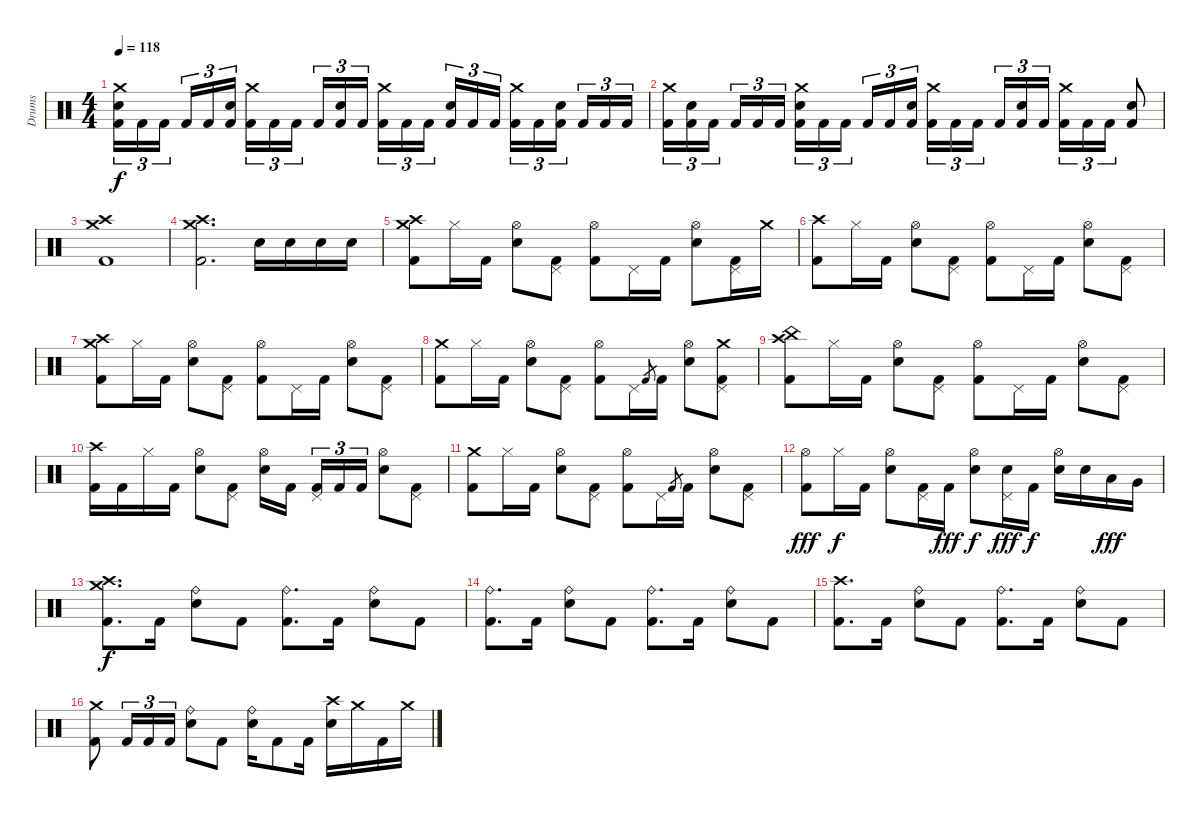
\track ("Drums" "Drums") {instrument percussion}
\staff {score}
\articulation defaults
\ts (4 4)
\tempo 118
\clef neutral
\ks c
("Crash medium (hit)" "Electric Snare (hit)" "Kick (hit) 2").16{tu (3 2) dy f} "Kick (hit) 2".16{tu (3 2)} "Kick (hit) 2".16{tu (3 2) beam splitsecondary} "Kick (hit) 2".16{tu (3 2)} "Kick (hit) 2".16{tu (3 2)} ("Electric Snare (hit)" "Kick (hit) 2").16{tu (3 2)} ("Crash medium (hit)" "Kick (hit) 2").16{tu (3 2)} "Kick (hit) 2".16{tu (3 2)} "Kick (hit) 2".16{tu (3 2) beam splitsecondary} "Kick (hit) 2".16{tu (3 2)} ("Electric Snare (hit)" "Kick (hit) 2").16{tu (3 2)} "Kick (hit) 2".16{tu (3 2)} ("Crash medium (hit)" "Kick (hit) 2").16{tu (3 2)} "Kick (hit) 2".16{tu (3 2)} "Kick (hit) 2".16{tu (3 2) beam splitsecondary} ("Electric Snare (hit)" "Kick (hit) 2").16{tu (3 2)} "Kick (hit) 2".16{tu (3 2)} "Kick (hit) 2".16{tu (3 2)} ("Crash medium (hit)" "Kick (hit) 2").16{tu (3 2)} "Kick (hit) 2".16{tu (3 2)} ("Electric Snare (hit)" "Kick (hit) 2").16{tu (3 2) beam splitsecondary} "Kick (hit) 2".16{tu (3 2)} "Kick (hit) 2".16{tu (3 2)} "Kick (hit) 2".16{tu (3 2)} |
("Crash medium (hit)" "Kick (hit) 2").16{tu (3 2)} ("Electric Snare (hit)" "Kick (hit) 2").16{tu (3 2)} "Kick (hit) 2".16{tu (3 2) beam splitsecondary} "Kick (hit) 2".16{tu (3 2)} "Kick (hit) 2".16{tu (3 2)} "Kick (hit) 2".16{tu (3 2)} ("Crash medium (hit)" "Electric Snare (hit)" "Kick (hit) 2").16{tu (3 2)} "Kick (hit) 2".16{tu (3 2)} "Kick (hit) 2".16{tu (3 2) beam splitsecondary} "Kick (hit) 2".16{tu (3 2)} "Kick (hit) 2".16{tu (3 2)} ("Electric Snare (hit)" "Kick (hit) 2").16{tu (3 2)} ("Crash medium (hit)" "Kick (hit) 2").16{tu (3 2)} "Kick (hit) 2".16{tu (3 2)} "Kick (hit) 2".16{tu (3 2) beam splitsecondary} "Kick (hit) 2".16{tu (3 2)} ("Electric Snare (hit)" "Kick (hit) 2").16{tu (3 2)} "Kick (hit) 2".16{tu (3 2)} ("Crash medium (hit)" "Kick (hit) 2").16{tu (3 2)} "Kick (hit) 2".16{tu (3 2)} "Kick (hit) 2".16{tu (3 2)} ("Electric Snare (hit)" "Kick (hit) 2").8 |
("Crash medium (hit)" "Crash high (hit)" "Kick (hit) 2").1 |
("Crash medium (hit)" "Crash high (hit)" "Kick (hit) 2").2{d} "Electric Snare (hit)".16 "Electric Snare (hit)".16 "Electric Snare (hit)".16 "Electric Snare (hit)".16 |
("Crash high (hit)" "Crash medium (hit)" "Kick (hit) 2").8 "Hi-Hat (closed)".16 "Kick (hit) 2".16 ("Hi-Hat (open)" "Electric Snare (hit)").8 ("Pedal Hi-Hat (hit)" "Kick (hit) 2").8 ("Hi-Hat (open)" "Kick (hit) 2").8 "Pedal Hi-Hat (hit)".16 "Kick (hit) 2".16 ("Hi-Hat (open)" "Electric Snare (hit)").8 ("Pedal Hi-Hat (hit)" "Kick (hit) 2").16 "Crash medium (hit)".16 |
("Crash high (hit)" "Kick (hit) 2").8 "Hi-Hat (closed)".16 "Kick (hit) 2".16 ("Hi-Hat (open)" "Electric Snare (hit)").8 ("Pedal Hi-Hat (hit)" "Kick (hit) 2").8 ("Hi-Hat (open)" "Kick (hit) 2").8 "Pedal Hi-Hat (hit)".16 "Kick (hit) 2".16 ("Hi-Hat (open)" "Electric Snare (hit)").8 ("Pedal Hi-Hat (hit)" "Kick (hit) 2").8 |
("Crash medium (hit)" "Crash high (hit)" "Kick (hit) 2").8 "Hi-Hat (closed)".16 "Kick (hit) 2".16 ("Hi-Hat (open)" "Electric Snare (hit)").8 ("Pedal Hi-Hat (hit)" "Kick (hit) 2").8 ("Hi-Hat (open)" "Kick (hit) 2").8 "Pedal Hi-Hat (hit)".16 "Kick (hit) 2".16 ("Hi-Hat (open)" "Electric Snare (hit)").8 ("Pedal Hi-Hat (hit)" "Kick (hit) 2").8 |
("Crash medium (hit)" "Kick (hit) 2").8 "Hi-Hat (closed)".16 "Kick (hit) 2".16 ("Hi-Hat (open)" "Electric Snare (hit)").8 ("Pedal Hi-Hat (hit)" "Kick (hit) 2").8 ("Hi-Hat (open)" "Kick (hit) 2").8 "Pedal Hi-Hat (hit)".16 "Kick (hit) 2".8{gr} "Kick (hit) 2".16 ("Hi-Hat (open)" "Electric Snare (hit)").8 ("Crash medium (hit)" "Pedal Hi-Hat (hit)" "Kick (hit) 2").8 |
("Crash high (hit)" "China (hit)" "Kick (hit) 2").8 "Hi-Hat (closed)".16 "Kick (hit) 2".16 ("Hi-Hat (open)" "Electric Snare (hit)").8 ("Pedal Hi-Hat (hit)" "Kick (hit) 2").8 ("Hi-Hat (open)" "Kick (hit) 2").8 "Pedal Hi-Hat (hit)".16 "Kick (hit) 2".16 ("Hi-Hat (open)" "Electric Snare (hit)").8 ("Pedal Hi-Hat (hit)" "Kick (hit) 2").8 |
("Crash high (hit)" "Kick (hit) 2").16 "Kick (hit) 2".16 "Hi-Hat (closed)".16 "Kick (hit) 2".16 ("Hi-Hat (open)" "Electric Snare (hit)").8 ("Pedal Hi-Hat (hit)" "Kick (hit) 2").8 ("Hi-Hat (open)" "Electric Snare (hit)").16 "Kick (hit) 2".16{beam splitsecondary} ("Pedal Hi-Hat (hit)" "Kick (hit) 2").16{tu (3 2)} "Kick (hit) 2".16{tu (3 2)} "Kick (hit) 2".16{tu (3 2)} ("Hi-Hat (open)" "Electric Snare (hit)").8 ("Pedal Hi-Hat (hit)" "Kick (hit) 2").8 |
("Crash medium (hit)" "Kick (hit) 2").8 "Hi-Hat (closed)".16 "Kick (hit) 2".16 ("Hi-Hat (open)" "Electric Snare (hit)").8 ("Pedal Hi-Hat (hit)" "Kick (hit) 2").8 ("Hi-Hat (open)" "Kick (hit) 2").8 "Pedal Hi-Hat (hit)".16 "Kick (hit) 2".8{gr} "Kick (hit) 2".16 ("Hi-Hat (open)" "Electric Snare (hit)").8 ("Pedal Hi-Hat (hit)" "Kick (hit) 2").8 |
("Hi-Hat (open)" "Kick (hit) 2").8{dy fff} "Hi-Hat (closed)".16{dy f} "Kick (hit) 2".16 ("Hi-Hat (open)" "Electric Snare (hit)").8 ("Pedal Hi-Hat (hit)" "Kick (hit) 2").16 "Kick (hit) 2".16{dy fff} ("Hi-Hat (open)" "Electric Snare (hit)").8{dy f} ("Pedal Hi-Hat (hit)" "Electric Snare (hit)").16{dy fff} "Kick (hit) 2".16{dy f} ("Hi-Hat (open)" "Electric Snare (hit)").16 "Electric Snare (hit)".16 "Low Tom (hit)".16{dy fff} "Very Low Tom (hit)".16 |
("Crash medium (hit)" "Crash high (hit)" "Kick (hit) 2").8{d dy f} "Kick (hit) 2".16 ("Ride (bell)" "Electric Snare (hit)").8 "Kick (hit) 2".8 ("Ride (bell)" "Kick (hit) 2").8{d} "Kick (hit) 2".16 ("Ride (bell)" "Electric Snare (hit)").8 "Kick (hit) 2".8 |
("Ride (bell)" "Kick (hit) 2").8{d} "Kick (hit) 2".16 ("Ride (bell)" "Electric Snare (hit)").8 "Kick (hit) 2".8 ("Ride (bell)" "Kick (hit) 2").8{d} "Kick (hit) 2".16 ("Ride (bell)" "Electric Snare (hit)").8 "Kick (hit) 2".8 |
("Crash high (hit)" "Kick (hit) 2").8{d} "Kick (hit) 2".16 ("Ride (bell)" "Electric Snare (hit)").8 "Kick (hit) 2".8 ("Ride (bell)" "Kick (hit) 2").8{d} "Kick (hit) 2".16 ("Ride (bell)" "Electric Snare (hit)").8 "Kick (hit) 2".8 |
("Crash medium (hit)" "Kick (hit) 2").8 "Kick (hit) 2".16{tu (3 2)} "Kick (hit) 2".16{tu (3 2)} "Kick (hit) 2".16{tu (3 2)} ("Ride (bell)" "Electric Snare (hit)").8 "Kick (hit) 2".8 ("Ride (bell)" "Electric Snare (hit)").16 "Kick (hit) 2".8 "Kick (hit) 2".16 ("Crash high (hit)" "Electric Snare (hit)").16 "Crash medium (hit)".16 "Kick (hit) 2".16 "Crash medium (hit)".16
